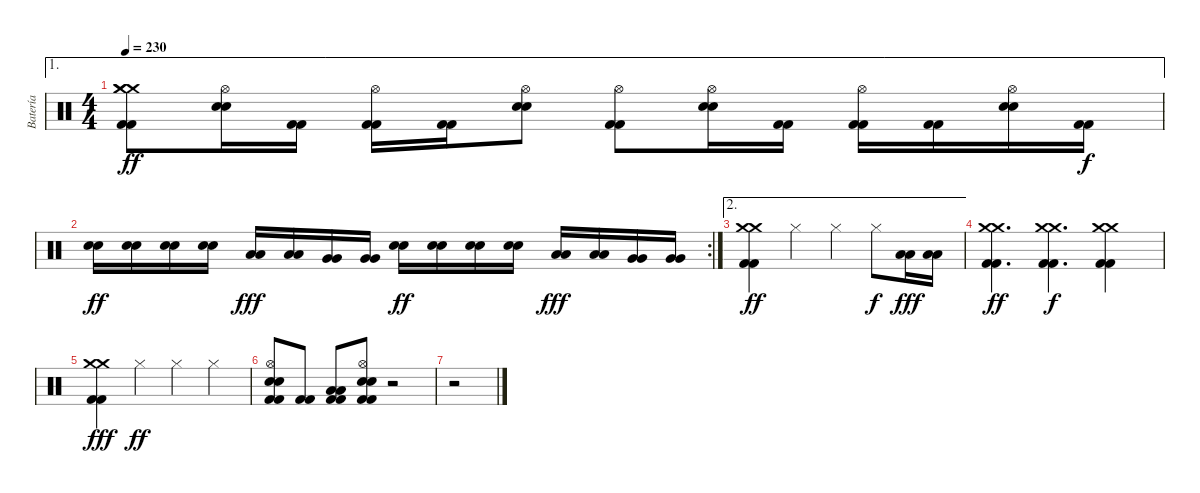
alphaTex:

\track ("Batería" "Batería") {instrument percussion}
\staff {score}
\articulation defaults
\ae 1
\ts (4 4)
\tempo 230
\clef neutral
\ks c
("Crash medium (hit)" "Crash medium (hit)" "Crash medium (hit)" "Kick (hit) 2" "Kick (hit) 2").8{dy ff} ("Hi-Hat (open)" "Electric Snare (hit)" "Electric Snare (hit)").16 ("Kick (hit) 2" "Kick (hit) 2").16 ("Hi-Hat (open)" "Kick (hit) 2" "Kick (hit) 2").16 ("Kick (hit) 2" "Kick (hit) 2").16 ("Hi-Hat (open)" "Electric Snare (hit)" "Electric Snare (hit)").8 ("Hi-Hat (open)" "Kick (hit) 2" "Kick (hit) 2").8 ("Hi-Hat (open)" "Electric Snare (hit)" "Electric Snare (hit)").16 ("Kick (hit) 2" "Kick (hit) 2").16 ("Hi-Hat (open)" "Kick (hit) 2" "Kick (hit) 2").16 ("Kick (hit) 2" "Kick (hit) 2").16 ("Hi-Hat (open)" "Electric Snare (hit)" "Electric Snare (hit)").16 ("Kick (hit) 2" "Kick (hit) 2").16{dy f} |
\rc 2
("Electric Snare (hit)" "Electric Snare (hit)").16{dy ff} ("Electric Snare (hit)" "Electric Snare (hit)").16 ("Electric Snare (hit)" "Electric Snare (hit)").16 ("Electric Snare (hit)" "Electric Snare (hit)").16 ("Low Tom (hit)" "Low Tom (hit)").16{dy fff} ("Low Tom (hit)" "Low Tom (hit)").16 ("Very Low Tom (hit)" "Very Low Tom (hit)").16 ("Very Low Tom (hit)" "Very Low Tom (hit)").16 ("Electric Snare (hit)" "Electric Snare (hit)").16{dy ff} ("Electric Snare (hit)" "Electric Snare (hit)").16 ("Electric Snare (hit)" "Electric Snare (hit)").16 ("Electric Snare (hit)" "Electric Snare (hit)").16 ("Low Tom (hit)" "Low Tom (hit)").16{dy fff} ("Low Tom (hit)" "Low Tom (hit)").16 ("Very Low Tom (hit)" "Very Low Tom (hit)").16 ("Very Low Tom (hit)" "Very Low Tom (hit)").16 |
\ae 2
("Crash medium (hit)" "Crash medium (hit)" "Kick (hit) 2" "Kick (hit) 2").4{dy ff} "Hi-Hat (closed)".4 "Hi-Hat (closed)".4 "Hi-Hat (closed)".8{dy f} ("Low Floor Tom (hit)" "Low Floor Tom (hit)").16{dy fff} ("Low Floor Tom (hit)" "Low Floor Tom (hit)").16 |
("Crash medium (hit)" "Crash medium (hit)" "Kick (hit) 2" "Kick (hit) 2").4{d dy ff} ("Crash medium (hit)" "Crash medium (hit)" "Kick (hit) 2" "Kick (hit) 2").4{d dy f} ("Crash medium (hit)" "Crash medium (hit)" "Kick (hit) 2" "Kick (hit) 2").4 |
("Crash medium (hit)" "Crash medium (hit)" "Kick (hit) 2" "Kick (hit) 2").4{dy fff} "Hi-Hat (closed)".4{dy ff} "Hi-Hat (closed)".4 "Hi-Hat (closed)".4 |
("Hi-Hat (open)" "Electric Snare (hit)" "Electric Snare (hit)" "Kick (hit) 2" "Kick (hit) 2").8 ("Kick (hit) 2" "Kick (hit) 2").8 ("Low Tom (hit)" "Low Tom (hit)" "Kick (hit) 2" "Kick (hit) 2").8 ("Hi-Hat (open)" "Electric Snare (hit)" "Electric Snare (hit)" "Kick (hit) 2" "Kick (hit) 2").8 r.2 |
r.2
